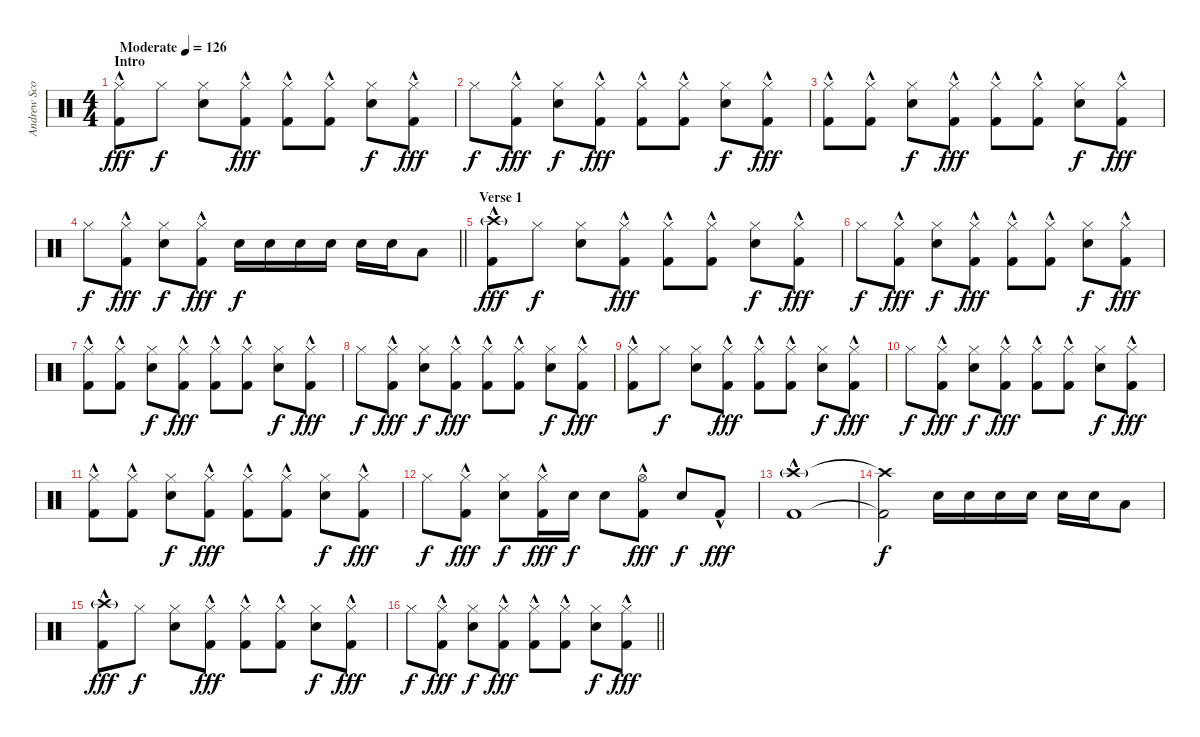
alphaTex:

\track ("Andrew Scott" "Andrew Sco") {instrument percussion}
\staff {score}
\articulation defaults
\ts (4 4)
\section ("" "Intro")
\tempo (126 "Moderate")
\clef neutral
\ks c
("Hi-Hat (closed)" "Kick (hit) 2"{hac}).8{dy fff} "Hi-Hat (closed)".8{dy f} ("Hi-Hat (closed)" "Snare (hit) 2").8 ("Hi-Hat (closed)" "Kick (hit) 2"{hac}).8{dy fff} ("Hi-Hat (closed)" "Kick (hit) 2"{hac}).8 ("Hi-Hat (closed)" "Kick (hit) 2"{hac}).8 ("Hi-Hat (closed)" "Snare (hit) 2").8{dy f} ("Hi-Hat (closed)" "Kick (hit) 2"{hac}).8{dy fff} |
"Hi-Hat (closed)".8{dy f} ("Hi-Hat (closed)" "Kick (hit) 2"{hac}).8{dy fff} ("Hi-Hat (closed)" "Snare (hit) 2").8{dy f} ("Hi-Hat (closed)" "Kick (hit) 2"{hac}).8{dy fff} ("Hi-Hat (closed)" "Kick (hit) 2"{hac}).8 ("Hi-Hat (closed)" "Kick (hit) 2"{hac}).8 ("Hi-Hat (closed)" "Snare (hit) 2").8{dy f} ("Hi-Hat (closed)" "Kick (hit) 2"{hac}).8{dy fff} |
("Hi-Hat (closed)" "Kick (hit) 2"{hac}).8 ("Hi-Hat (closed)" "Kick (hit) 2"{hac}).8 ("Hi-Hat (closed)" "Snare (hit) 2").8{dy f} ("Hi-Hat (closed)" "Kick (hit) 2"{hac}).8{dy fff} ("Hi-Hat (closed)" "Kick (hit) 2"{hac}).8 ("Hi-Hat (closed)" "Kick (hit) 2"{hac}).8 ("Hi-Hat (closed)" "Snare (hit) 2").8{dy f} ("Hi-Hat (closed)" "Kick (hit) 2"{hac}).8{dy fff} |
\barLineRight lightlight "Hi-Hat (closed)".8{dy f}
("Hi-Hat (closed)" "Kick (hit) 2"{hac}).8{dy fff} ("Hi-Hat (closed)" "Snare (hit) 2").8{dy f} ("Hi-Hat (closed)" "Kick (hit) 2"{hac}).8{dy fff} "Snare (hit) 2".16{dy f volume 5} "Snare (hit) 2".16{volume 10} "Snare (hit) 2".16 "Snare (hit) 2".16 "Snare (hit) 2".16 "Snare (hit) 2".16 "Low Tom (hit)".8 |
\section ("" "Verse 1")
("Crash high (hit)"{g} "Kick (hit) 2"{hac}).8{dy fff} "Hi-Hat (closed)".8{dy f} ("Hi-Hat (closed)" "Snare (hit) 2").8 ("Hi-Hat (closed)" "Kick (hit) 2"{hac}).8{dy fff} ("Hi-Hat (closed)" "Kick (hit) 2"{hac}).8 ("Hi-Hat (closed)" "Kick (hit) 2"{hac}).8 ("Hi-Hat (closed)" "Snare (hit) 2").8{dy f} ("Hi-Hat (closed)" "Kick (hit) 2"{hac}).8{dy fff} |
"Hi-Hat (closed)".8{dy f} ("Hi-Hat (closed)" "Kick (hit) 2"{hac}).8{dy fff} ("Hi-Hat (closed)" "Snare (hit) 2").8{dy f} ("Hi-Hat (closed)" "Kick (hit) 2"{hac}).8{dy fff} ("Hi-Hat (closed)" "Kick (hit) 2"{hac}).8 ("Hi-Hat (closed)" "Kick (hit) 2"{hac}).8 ("Hi-Hat (closed)" "Snare (hit) 2").8{dy f} ("Hi-Hat (closed)" "Kick (hit) 2"{hac}).8{dy fff} |
("Hi-Hat (closed)" "Kick (hit) 2"{hac}).8 ("Hi-Hat (closed)" "Kick (hit) 2"{hac}).8 ("Hi-Hat (closed)" "Snare (hit) 2").8{dy f} ("Hi-Hat (closed)" "Kick (hit) 2"{hac}).8{dy fff} ("Hi-Hat (closed)" "Kick (hit) 2"{hac}).8 ("Hi-Hat (closed)" "Kick (hit) 2"{hac}).8 ("Hi-Hat (closed)" "Snare (hit) 2").8{dy f} ("Hi-Hat (closed)" "Kick (hit) 2"{hac}).8{dy fff} |
"Hi-Hat (closed)".8{dy f} ("Hi-Hat (closed)" "Kick (hit) 2"{hac}).8{dy fff} ("Hi-Hat (closed)" "Snare (hit) 2").8{dy f} ("Hi-Hat (closed)" "Kick (hit) 2"{hac}).8{dy fff} ("Hi-Hat (closed)" "Kick (hit) 2"{hac}).8 ("Hi-Hat (closed)" "Kick (hit) 2"{hac}).8 ("Hi-Hat (closed)" "Snare (hit) 2").8{dy f} ("Hi-Hat (closed)" "Kick (hit) 2"{hac}).8{dy fff} |
("Hi-Hat (closed)" "Kick (hit) 2"{hac}).8 "Hi-Hat (closed)".8{dy f} ("Hi-Hat (closed)" "Snare (hit) 2").8 ("Hi-Hat (closed)" "Kick (hit) 2"{hac}).8{dy fff} ("Hi-Hat (closed)" "Kick (hit) 2"{hac}).8 ("Hi-Hat (closed)" "Kick (hit) 2"{hac}).8 ("Hi-Hat (closed)" "Snare (hit) 2").8{dy f} ("Hi-Hat (closed)" "Kick (hit) 2"{hac}).8{dy fff} |
"Hi-Hat (closed)".8{dy f} ("Hi-Hat (closed)" "Kick (hit) 2"{hac}).8{dy fff} ("Hi-Hat (closed)" "Snare (hit) 2").8{dy f} ("Hi-Hat (closed)" "Kick (hit) 2"{hac}).8{dy fff} ("Hi-Hat (closed)" "Kick (hit) 2"{hac}).8 ("Hi-Hat (closed)" "Kick (hit) 2"{hac}).8 ("Hi-Hat (closed)" "Snare (hit) 2").8{dy f} ("Hi-Hat (closed)" "Kick (hit) 2"{hac}).8{dy fff} |
("Hi-Hat (closed)" "Kick (hit) 2"{hac}).8 ("Hi-Hat (closed)" "Kick (hit) 2"{hac}).8 ("Hi-Hat (closed)" "Snare (hit) 2").8{dy f} ("Hi-Hat (closed)" "Kick (hit) 2"{hac}).8{dy fff} ("Hi-Hat (closed)" "Kick (hit) 2"{hac}).8 ("Hi-Hat (closed)" "Kick (hit) 2"{hac}).8 ("Hi-Hat (closed)" "Snare (hit) 2").8{dy f} ("Hi-Hat (closed)" "Kick (hit) 2"{hac}).8{dy fff} |
"Hi-Hat (closed)".8{dy f} ("Hi-Hat (closed)" "Kick (hit) 2"{hac}).8{dy fff} ("Hi-Hat (closed)" "Snare (hit) 2").8{dy f} ("Hi-Hat (closed)" "Kick (hit) 2"{hac}).16{dy fff} "Snare (hit) 2".16{dy f} "Snare (hit) 2".8 ("Hi-Hat (open)" "Kick (hit) 2"{hac}).8{dy fff} "Snare (hit) 2".8{dy f} "Kick (hit) 2"{hac}.8{dy fff} |
("Crash high (hit)"{g} "Kick (hit) 2"{hac}).1 |
("Crash high (hit)"{t} "Kick (hit) 2"{t}).2{dy f} "Snare (hit) 2".16{volume 4} "Snare (hit) 2".16{volume 10} "Snare (hit) 2".16 "Snare (hit) 2".16 "Snare (hit) 2".16 "Snare (hit) 2".16 "Low Tom (hit)".8 |
("Crash high (hit)"{g} "Kick (hit) 2"{hac}).8{dy fff} "Hi-Hat (closed)".8{dy f} ("Hi-Hat (closed)" "Snare (hit) 2").8 ("Hi-Hat (closed)" "Kick (hit) 2"{hac}).8{dy fff} ("Hi-Hat (closed)" "Kick (hit) 2"{hac}).8 ("Hi-Hat (closed)" "Kick (hit) 2"{hac}).8 ("Hi-Hat (closed)" "Snare (hit) 2").8{dy f} ("Hi-Hat (closed)" "Kick (hit) 2"{hac}).8{dy fff} |
\barLineRight lightlight "Hi-Hat (closed)".8{dy f}
("Hi-Hat (closed)" "Kick (hit) 2"{hac}).8{dy fff} ("Hi-Hat (closed)" "Snare (hit) 2").8{dy f} ("Hi-Hat (closed)" "Kick (hit) 2"{hac}).8{dy fff} ("Hi-Hat (closed)" "Kick (hit) 2"{hac}).8 ("Hi-Hat (closed)" "Kick (hit) 2"{hac}).8 ("Hi-Hat (closed)" "Snare (hit) 2").8{dy f} ("Hi-Hat (closed)" "Kick (hit) 2"{hac}).8{dy fff}
